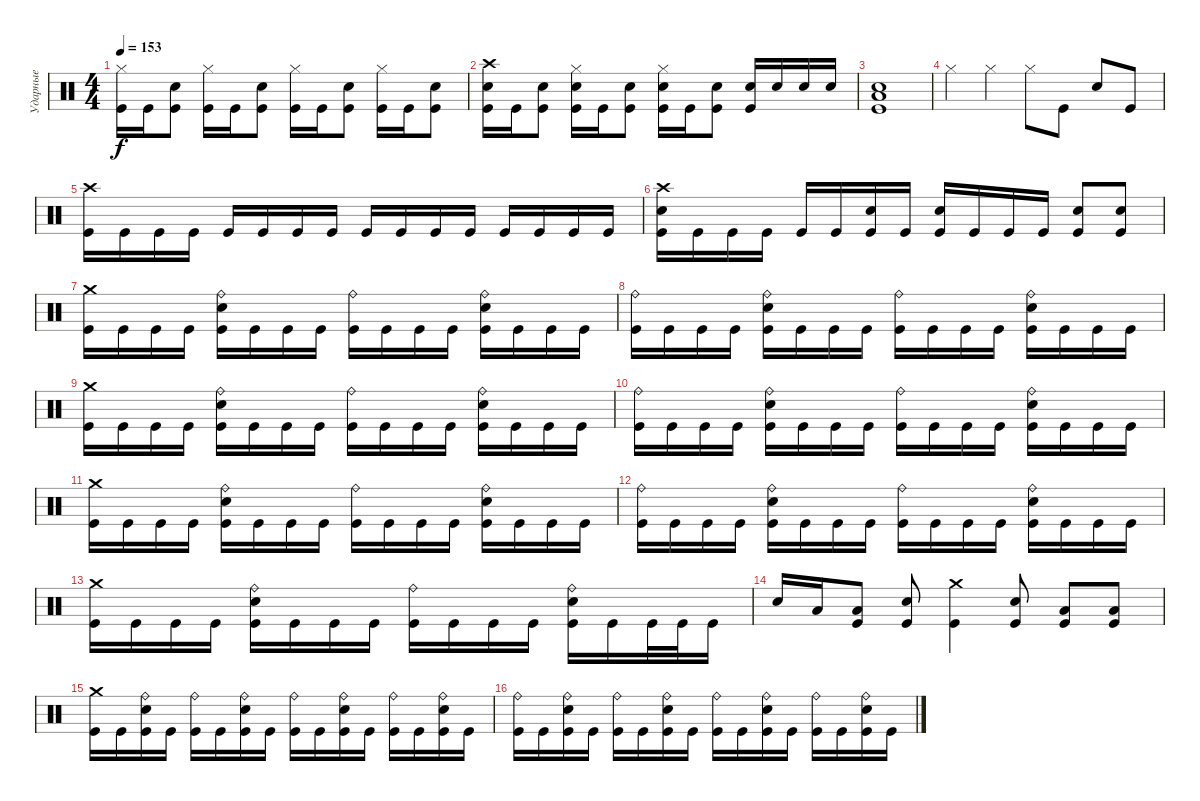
\track ("Ударные" "Ударные") {instrument percussion}
\staff {score}
\articulation defaults
\ts (4 4)
\tempo 153
\clef neutral
\ks c
("Hi-Hat (closed)" "Kick (hit)").16{dy f} "Kick (hit)".16 ("Electric Snare (hit)" "Kick (hit)").8 ("Hi-Hat (closed)" "Kick (hit)").16 "Kick (hit)".16 ("Electric Snare (hit)" "Kick (hit)").8 ("Hi-Hat (closed)" "Kick (hit)").16 "Kick (hit)".16 ("Electric Snare (hit)" "Kick (hit)").8 ("Hi-Hat (closed)" "Kick (hit)").16 "Kick (hit)".16 ("Electric Snare (hit)" "Kick (hit)").8 |
("Crash high (hit)" "Electric Snare (hit)" "Kick (hit)").16 "Kick (hit)".16 ("Electric Snare (hit)" "Kick (hit)").8 ("Hi-Hat (closed)" "Electric Snare (hit)" "Kick (hit)").16 "Kick (hit)".16 ("Electric Snare (hit)" "Kick (hit)").8 ("Hi-Hat (closed)" "Electric Snare (hit)" "Kick (hit)").16 "Kick (hit)".16 ("Electric Snare (hit)" "Kick (hit)").8 ("Electric Snare (hit)" "Kick (hit)").16 "Electric Snare (hit)".16 "Electric Snare (hit)".16 "Electric Snare (hit)".16 |
("Low Tom (hit)" "Electric Snare (hit)" "Kick (hit)").1 |
"Hi-Hat (closed)".4 "Hi-Hat (closed)".4 "Hi-Hat (closed)".8 "Kick (hit)".8 "Electric Snare (hit)".8 "Kick (hit)".8 |
("Crash high (hit)" "Kick (hit)").16 "Kick (hit)".16 "Kick (hit)".16 "Kick (hit)".16 "Kick (hit)".16 "Kick (hit)".16 "Kick (hit)".16 "Kick (hit)".16 "Kick (hit)".16 "Kick (hit)".16 "Kick (hit)".16 "Kick (hit)".16 "Kick (hit)".16 "Kick (hit)".16 "Kick (hit)".16 "Kick (hit)".16 |
("Crash high (hit)" "Electric Snare (hit)" "Kick (hit)").16 "Kick (hit)".16 "Kick (hit)".16 "Kick (hit)".16 "Kick (hit)".16 "Kick (hit)".16 ("Electric Snare (hit)" "Kick (hit)").16 "Kick (hit)".16 ("Electric Snare (hit)" "Kick (hit)").16 "Kick (hit)".16 "Kick (hit)".16 "Kick (hit)".16 ("Electric Snare (hit)" "Kick (hit)").8 ("Electric Snare (hit)" "Kick (hit)").8 |
("Crash medium (hit)" "Kick (hit)").16 "Kick (hit)".16 "Kick (hit)".16 "Kick (hit)".16 ("Ride (bell)" "Electric Snare (hit)" "Kick (hit)").16 "Kick (hit)".16 "Kick (hit)".16 "Kick (hit)".16 ("Ride (bell)" "Kick (hit)").16 "Kick (hit)".16 "Kick (hit)".16 "Kick (hit)".16 ("Ride (bell)" "Electric Snare (hit)" "Kick (hit)").16 "Kick (hit)".16 "Kick (hit)".16 "Kick (hit)".16 |
("Ride (bell)" "Kick (hit)").16 "Kick (hit)".16 "Kick (hit)".16 "Kick (hit)".16 ("Ride (bell)" "Electric Snare (hit)" "Kick (hit)").16 "Kick (hit)".16 "Kick (hit)".16 "Kick (hit)".16 ("Ride (bell)" "Kick (hit)").16 "Kick (hit)".16 "Kick (hit)".16 "Kick (hit)".16 ("Ride (bell)" "Electric Snare (hit)" "Kick (hit)").16 "Kick (hit)".16 "Kick (hit)".16 "Kick (hit)".16 |
("Crash medium (hit)" "Kick (hit)").16 "Kick (hit)".16 "Kick (hit)".16 "Kick (hit)".16 ("Ride (bell)" "Electric Snare (hit)" "Kick (hit)").16 "Kick (hit)".16 "Kick (hit)".16 "Kick (hit)".16 ("Ride (bell)" "Kick (hit)").16 "Kick (hit)".16 "Kick (hit)".16 "Kick (hit)".16 ("Ride (bell)" "Electric Snare (hit)" "Kick (hit)").16 "Kick (hit)".16 "Kick (hit)".16 "Kick (hit)".16 |
("Ride (bell)" "Kick (hit)").16 "Kick (hit)".16 "Kick (hit)".16 "Kick (hit)".16 ("Ride (bell)" "Electric Snare (hit)" "Kick (hit)").16 "Kick (hit)".16 "Kick (hit)".16 "Kick (hit)".16 ("Ride (bell)" "Kick (hit)").16 "Kick (hit)".16 "Kick (hit)".16 "Kick (hit)".16 ("Ride (bell)" "Electric Snare (hit)" "Kick (hit)").16 "Kick (hit)".16 "Kick (hit)".16 "Kick (hit)".16 |
("Crash medium (hit)" "Kick (hit)").16 "Kick (hit)".16 "Kick (hit)".16 "Kick (hit)".16 ("Ride (bell)" "Electric Snare (hit)" "Kick (hit)").16 "Kick (hit)".16 "Kick (hit)".16 "Kick (hit)".16 ("Ride (bell)" "Kick (hit)").16 "Kick (hit)".16 "Kick (hit)".16 "Kick (hit)".16 ("Ride (bell)" "Electric Snare (hit)" "Kick (hit)").16 "Kick (hit)".16 "Kick (hit)".16 "Kick (hit)".16 |
("Ride (bell)" "Kick (hit)").16 "Kick (hit)".16 "Kick (hit)".16 "Kick (hit)".16 ("Ride (bell)" "Electric Snare (hit)" "Kick (hit)").16 "Kick (hit)".16 "Kick (hit)".16 "Kick (hit)".16 ("Ride (bell)" "Kick (hit)").16 "Kick (hit)".16 "Kick (hit)".16 "Kick (hit)".16 ("Ride (bell)" "Electric Snare (hit)" "Kick (hit)").16 "Kick (hit)".16 "Kick (hit)".16 "Kick (hit)".16 |
("Crash medium (hit)" "Kick (hit)").16 "Kick (hit)".16 "Kick (hit)".16 "Kick (hit)".16 ("Ride (bell)" "Electric Snare (hit)" "Kick (hit)").16 "Kick (hit)".16 "Kick (hit)".16 "Kick (hit)".16 ("Ride (bell)" "Kick (hit)").16 "Kick (hit)".16 "Kick (hit)".16 "Kick (hit)".16 ("Ride (bell)" "Electric Snare (hit)" "Kick (hit)").16 "Kick (hit)".16 "Kick (hit)".32 "Kick (hit)".32 "Kick (hit)".16 |
"Electric Snare (hit)".16 "Low Tom (hit)".16 ("Low Tom (hit)" "Kick (hit)").8 ("Electric Snare (hit)" "Kick (hit)").8 ("Crash medium (hit)" "Kick (hit)").4 ("Electric Snare (hit)" "Kick (hit)").8 ("Low Tom (hit)" "Kick (hit)").8 ("Low Tom (hit)" "Kick (hit)").8 |
("Crash medium (hit)" "Kick (hit)").16 "Kick (hit)".16 ("Ride (bell)" "Electric Snare (hit)" "Kick (hit)").16 "Kick (hit)".16 ("Ride (bell)" "Kick (hit)").16 "Kick (hit)".16 ("Ride (bell)" "Electric Snare (hit)" "Kick (hit)").16 "Kick (hit)".16 ("Ride (bell)" "Kick (hit)").16 "Kick (hit)".16 ("Ride (bell)" "Electric Snare (hit)" "Kick (hit)").16 "Kick (hit)".16 ("Ride (bell)" "Kick (hit)").16 "Kick (hit)".16 ("Ride (bell)" "Electric Snare (hit)" "Kick (hit)").16 "Kick (hit)".16 |
("Ride (bell)" "Kick (hit)").16 "Kick (hit)".16 ("Ride (bell)" "Electric Snare (hit)" "Kick (hit)").16 "Kick (hit)".16 ("Ride (bell)" "Kick (hit)").16 "Kick (hit)".16 ("Ride (bell)" "Electric Snare (hit)" "Kick (hit)").16 "Kick (hit)".16 ("Ride (bell)" "Kick (hit)").16 "Kick (hit)".16 ("Ride (bell)" "Electric Snare (hit)" "Kick (hit)").16 "Kick (hit)".16 ("Ride (bell)" "Kick (hit)").16 "Kick (hit)".16 ("Ride (bell)" "Electric Snare (hit)" "Kick (hit)").16 "Kick (hit)".16
